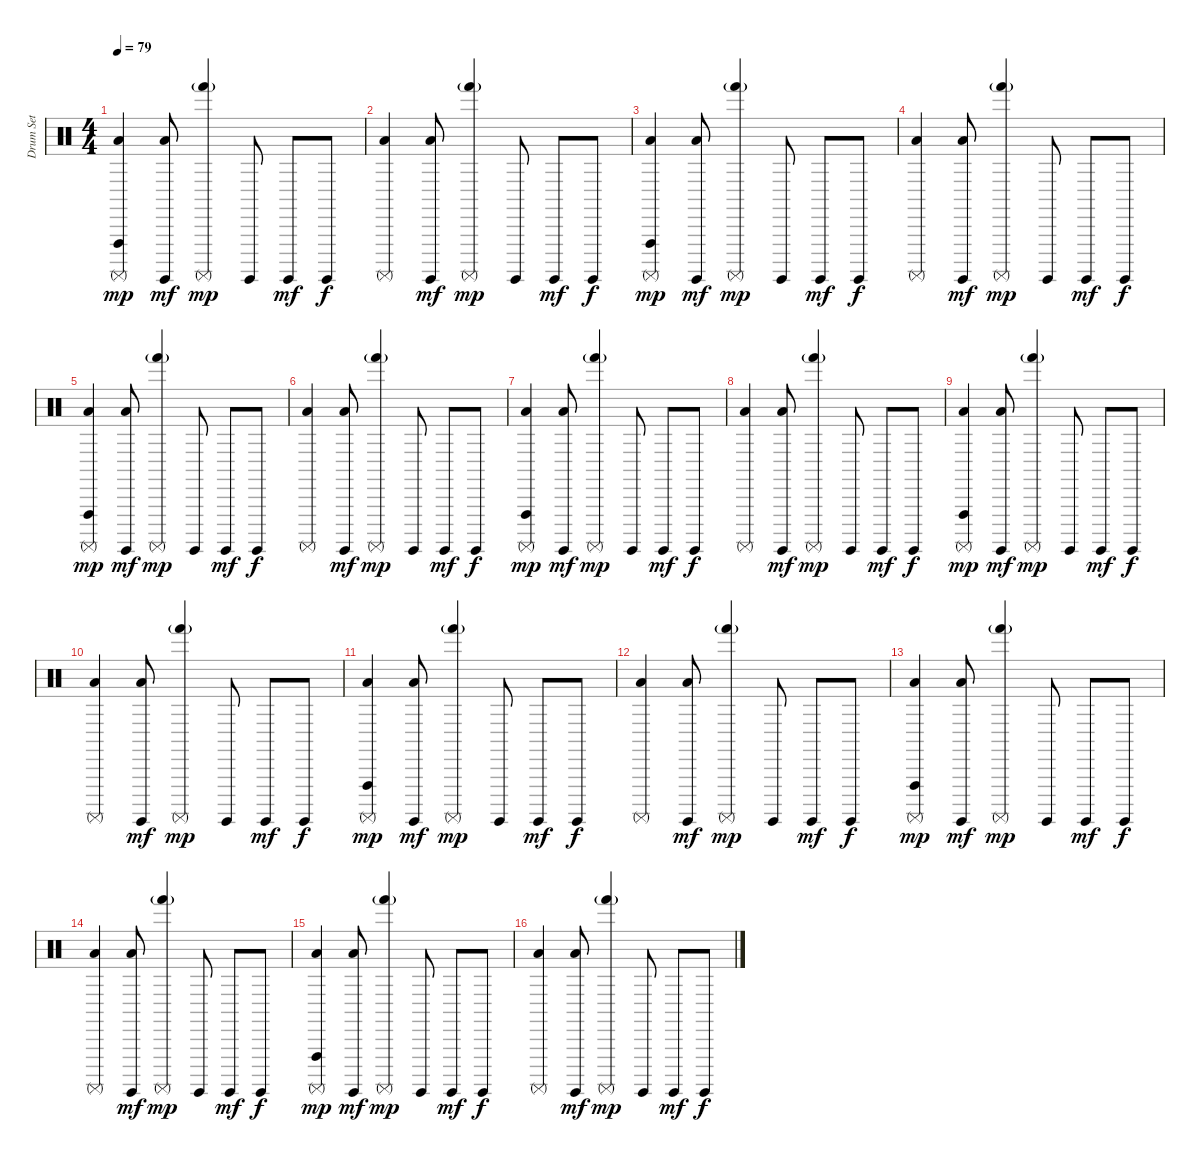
\track ("Drum Set" "Drum Set") {instrument percussion}
\staff {score}
\articulation defaults
\ts (4 4)
\tempo 79
\clef neutral
\ks c
("Vibraslap (hit)" "Low Floor Tom (hit)" "Surdo (mute)").4{dy mp} ("Low Floor Tom (hit)" "Surdo (hit)").8{dy mf} ("Surdo (mute)" "Hand (hit)"{g}).4{dy mp} "Surdo (hit)".8 "Surdo (hit)".8{dy mf} "Surdo (hit)".8{dy f} |
("Low Floor Tom (hit)" "Surdo (mute)").4 ("Low Floor Tom (hit)" "Surdo (hit)").8{dy mf} ("Surdo (mute)" "Hand (hit)"{g}).4{dy mp} "Surdo (hit)".8 "Surdo (hit)".8{dy mf} "Surdo (hit)".8{dy f} |
("Vibraslap (hit)" "Low Floor Tom (hit)" "Surdo (mute)").4{dy mp} ("Low Floor Tom (hit)" "Surdo (hit)").8{dy mf} ("Surdo (mute)" "Hand (hit)"{g}).4{dy mp} "Surdo (hit)".8 "Surdo (hit)".8{dy mf} "Surdo (hit)".8{dy f} |
("Low Floor Tom (hit)" "Surdo (mute)").4 ("Low Floor Tom (hit)" "Surdo (hit)").8{dy mf} ("Surdo (mute)" "Hand (hit)"{g}).4{dy mp} "Surdo (hit)".8 "Surdo (hit)".8{dy mf} "Surdo (hit)".8{dy f} |
("Vibraslap (hit)" "Low Floor Tom (hit)" "Surdo (mute)").4{dy mp} ("Low Floor Tom (hit)" "Surdo (hit)").8{dy mf} ("Surdo (mute)" "Hand (hit)"{g}).4{dy mp} "Surdo (hit)".8 "Surdo (hit)".8{dy mf} "Surdo (hit)".8{dy f} |
("Low Floor Tom (hit)" "Surdo (mute)").4 ("Low Floor Tom (hit)" "Surdo (hit)").8{dy mf} ("Surdo (mute)" "Hand (hit)"{g}).4{dy mp} "Surdo (hit)".8 "Surdo (hit)".8{dy mf} "Surdo (hit)".8{dy f} |
("Vibraslap (hit)" "Low Floor Tom (hit)" "Surdo (mute)").4{dy mp} ("Low Floor Tom (hit)" "Surdo (hit)").8{dy mf} ("Surdo (mute)" "Hand (hit)"{g}).4{dy mp} "Surdo (hit)".8 "Surdo (hit)".8{dy mf} "Surdo (hit)".8{dy f} |
("Low Floor Tom (hit)" "Surdo (mute)").4 ("Low Floor Tom (hit)" "Surdo (hit)").8{dy mf} ("Surdo (mute)" "Hand (hit)"{g}).4{dy mp} "Surdo (hit)".8 "Surdo (hit)".8{dy mf} "Surdo (hit)".8{dy f} |
("Vibraslap (hit)" "Low Floor Tom (hit)" "Surdo (mute)").4{dy mp} ("Low Floor Tom (hit)" "Surdo (hit)").8{dy mf} ("Surdo (mute)" "Hand (hit)"{g}).4{dy mp} "Surdo (hit)".8 "Surdo (hit)".8{dy mf} "Surdo (hit)".8{dy f} |
("Low Floor Tom (hit)" "Surdo (mute)").4 ("Low Floor Tom (hit)" "Surdo (hit)").8{dy mf} ("Surdo (mute)" "Hand (hit)"{g}).4{dy mp} "Surdo (hit)".8 "Surdo (hit)".8{dy mf} "Surdo (hit)".8{dy f} |
("Vibraslap (hit)" "Low Floor Tom (hit)" "Surdo (mute)").4{dy mp} ("Low Floor Tom (hit)" "Surdo (hit)").8{dy mf} ("Surdo (mute)" "Hand (hit)"{g}).4{dy mp} "Surdo (hit)".8 "Surdo (hit)".8{dy mf} "Surdo (hit)".8{dy f} |
("Low Floor Tom (hit)" "Surdo (mute)").4 ("Low Floor Tom (hit)" "Surdo (hit)").8{dy mf} ("Surdo (mute)" "Hand (hit)"{g}).4{dy mp} "Surdo (hit)".8 "Surdo (hit)".8{dy mf} "Surdo (hit)".8{dy f} |
("Vibraslap (hit)" "Low Floor Tom (hit)" "Surdo (mute)").4{dy mp} ("Low Floor Tom (hit)" "Surdo (hit)").8{dy mf} ("Surdo (mute)" "Hand (hit)"{g}).4{dy mp} "Surdo (hit)".8 "Surdo (hit)".8{dy mf} "Surdo (hit)".8{dy f} |
("Low Floor Tom (hit)" "Surdo (mute)").4 ("Low Floor Tom (hit)" "Surdo (hit)").8{dy mf} ("Surdo (mute)" "Hand (hit)"{g}).4{dy mp} "Surdo (hit)".8 "Surdo (hit)".8{dy mf} "Surdo (hit)".8{dy f} |
("Vibraslap (hit)" "Low Floor Tom (hit)" "Surdo (mute)").4{dy mp} ("Low Floor Tom (hit)" "Surdo (hit)").8{dy mf} ("Surdo (mute)" "Hand (hit)"{g}).4{dy mp} "Surdo (hit)".8 "Surdo (hit)".8{dy mf} "Surdo (hit)".8{dy f} |
("Low Floor Tom (hit)" "Surdo (mute)").4 ("Low Floor Tom (hit)" "Surdo (hit)").8{dy mf} ("Surdo (mute)" "Hand (hit)"{g}).4{dy mp} "Surdo (hit)".8 "Surdo (hit)".8{dy mf} "Surdo (hit)".8{dy f}
